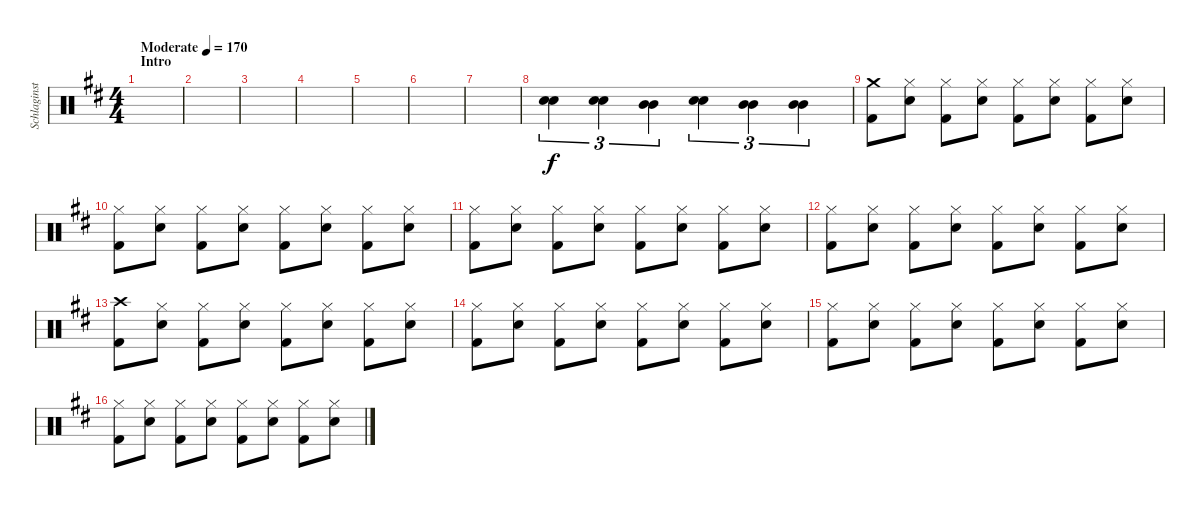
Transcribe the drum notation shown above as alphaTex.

\track ("Schlaginstrumente - Auswahl" "Schlaginst") {instrument percussion}
\staff {score}
\articulation defaults
\ts (4 4)
\section ("" "Intro")
\tempo (170 "Moderate")
\clef neutral
\ks d
|
|
|
|
|
|
|
("Snare (hit) 2" "Snare (hit) 2").4{tu (3 2) bd 120} ("Snare (hit) 2" "Snare (hit) 2").4{tu (3 2) bd 120} ("Mid Tom (hit)" "Mid Tom (hit)").4{tu (3 2) bd 120} ("Snare (hit) 2" "Snare (hit) 2").4{tu (3 2) bd 120} ("Mid Tom (hit)" "Mid Tom (hit)").4{tu (3 2) bd 120} ("Mid Tom (hit)" "Mid Tom (hit)").4{tu (3 2) bd 120} |
("Crash medium (hit)" "Kick (hit) 2").8 ("Hi-Hat (closed)" "Snare (hit) 2").8 ("Hi-Hat (closed)" "Kick (hit) 2").8 ("Hi-Hat (closed)" "Snare (hit) 2").8 ("Hi-Hat (closed)" "Kick (hit) 2").8 ("Hi-Hat (closed)" "Snare (hit) 2").8 ("Hi-Hat (closed)" "Kick (hit) 2").8 ("Hi-Hat (closed)" "Snare (hit) 2").8 |
("Hi-Hat (closed)" "Kick (hit) 2").8 ("Hi-Hat (closed)" "Snare (hit) 2").8 ("Hi-Hat (closed)" "Kick (hit) 2").8 ("Hi-Hat (closed)" "Snare (hit) 2").8 ("Hi-Hat (closed)" "Kick (hit) 2").8 ("Hi-Hat (closed)" "Snare (hit) 2").8 ("Hi-Hat (closed)" "Kick (hit) 2").8 ("Hi-Hat (closed)" "Snare (hit) 2").8 |
("Hi-Hat (closed)" "Kick (hit) 2").8 ("Hi-Hat (closed)" "Snare (hit) 2").8 ("Hi-Hat (closed)" "Kick (hit) 2").8 ("Hi-Hat (closed)" "Snare (hit) 2").8 ("Hi-Hat (closed)" "Kick (hit) 2").8 ("Hi-Hat (closed)" "Snare (hit) 2").8 ("Hi-Hat (closed)" "Kick (hit) 2").8 ("Hi-Hat (closed)" "Snare (hit) 2").8 |
("Hi-Hat (closed)" "Kick (hit) 2").8 ("Hi-Hat (closed)" "Snare (hit) 2").8 ("Hi-Hat (closed)" "Kick (hit) 2").8 ("Hi-Hat (closed)" "Snare (hit) 2").8 ("Hi-Hat (closed)" "Kick (hit) 2").8 ("Hi-Hat (closed)" "Snare (hit) 2").8 ("Hi-Hat (closed)" "Kick (hit) 2").8 ("Hi-Hat (closed)" "Snare (hit) 2").8 |
("Crash high (hit)" "Kick (hit) 2").8 ("Hi-Hat (closed)" "Snare (hit) 2").8 ("Hi-Hat (closed)" "Kick (hit) 2").8 ("Hi-Hat (closed)" "Snare (hit) 2").8 ("Hi-Hat (closed)" "Kick (hit) 2").8 ("Hi-Hat (closed)" "Snare (hit) 2").8 ("Hi-Hat (closed)" "Kick (hit) 2").8 ("Hi-Hat (closed)" "Snare (hit) 2").8 |
("Hi-Hat (closed)" "Kick (hit) 2").8 ("Hi-Hat (closed)" "Snare (hit) 2").8 ("Hi-Hat (closed)" "Kick (hit) 2").8 ("Hi-Hat (closed)" "Snare (hit) 2").8 ("Hi-Hat (closed)" "Kick (hit) 2").8 ("Hi-Hat (closed)" "Snare (hit) 2").8 ("Hi-Hat (closed)" "Kick (hit) 2").8 ("Hi-Hat (closed)" "Snare (hit) 2").8 |
("Hi-Hat (closed)" "Kick (hit) 2").8 ("Hi-Hat (closed)" "Snare (hit) 2").8 ("Hi-Hat (closed)" "Kick (hit) 2").8 ("Hi-Hat (closed)" "Snare (hit) 2").8 ("Hi-Hat (closed)" "Kick (hit) 2").8 ("Hi-Hat (closed)" "Snare (hit) 2").8 ("Hi-Hat (closed)" "Kick (hit) 2").8 ("Hi-Hat (closed)" "Snare (hit) 2").8 |
("Hi-Hat (closed)" "Kick (hit) 2").8 ("Hi-Hat (closed)" "Snare (hit) 2").8 ("Hi-Hat (closed)" "Kick (hit) 2").8 ("Hi-Hat (closed)" "Snare (hit) 2").8 ("Hi-Hat (closed)" "Kick (hit) 2").8 ("Hi-Hat (closed)" "Snare (hit) 2").8 ("Hi-Hat (closed)" "Kick (hit) 2").8 ("Hi-Hat (closed)" "Snare (hit) 2").8
